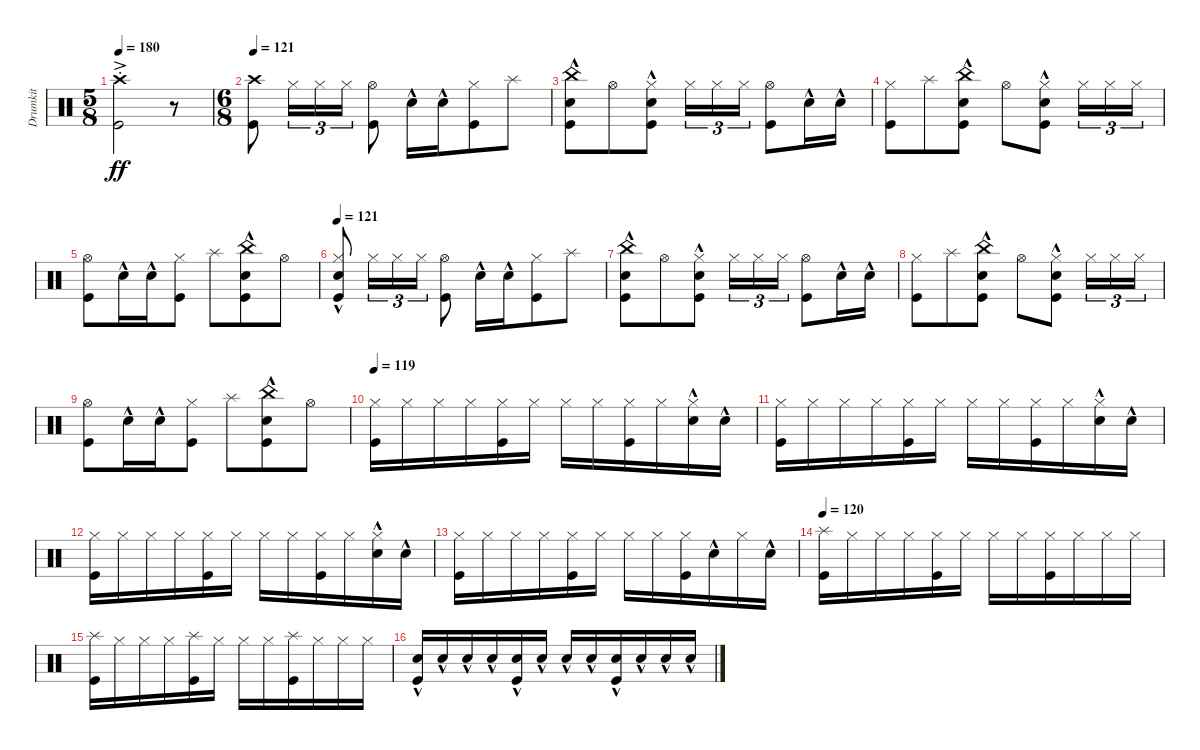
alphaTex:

\track ("Drumkit" "Drumkit") {instrument percussion}
\staff {score}
\articulation defaults
\ts (5 8)
\tempo 180
\clef neutral
\ks aminor
("Crash high (hit)"{ac st} "Kick (hit)").2{dy ff} r.8 |
\ts (6 8)
\tempo 122
\tempo 121
("Kick (hit)" "Crash high (hit)").8 "Hi-Hat (closed)".16{tu (3 2)} "Hi-Hat (closed)".16{tu (3 2)} "Hi-Hat (closed)".16{tu (3 2)} ("Hi-Hat (open)" "Kick (hit)").8 "Snare (hit) 2"{hac}.16 "Snare (hit) 2"{hac}.16 ("Hi-Hat (closed)" "Kick (hit)").8 "Splash (hit)".8 |
("China (hit)" "Snare (hit) 2"{hac} "Kick (hit)").8 "Hi-Hat (open)".8 ("Kick (hit)" "Hi-Hat (closed)" "Snare (hit) 2"{hac}).8 "Hi-Hat (closed)".16{tu (3 2)} "Hi-Hat (closed)".16{tu (3 2)} "Hi-Hat (closed)".16{tu (3 2)} ("Kick (hit)" "Hi-Hat (open)").8 "Snare (hit) 2"{hac}.16 "Snare (hit) 2"{hac}.16 |
("Hi-Hat (closed)" "Kick (hit)").8 "Splash (hit)".8 ("China (hit)" "Snare (hit) 2"{hac} "Kick (hit)").8 "Hi-Hat (open)".8 ("Kick (hit)" "Hi-Hat (closed)" "Snare (hit) 2"{hac}).8 "Hi-Hat (closed)".16{tu (3 2)} "Hi-Hat (closed)".16{tu (3 2)} "Hi-Hat (closed)".16{tu (3 2)} |
("Kick (hit)" "Hi-Hat (open)").8 "Snare (hit) 2"{hac}.16 "Snare (hit) 2"{hac}.16 ("Hi-Hat (closed)" "Kick (hit)").8 "Splash (hit)".8 ("China (hit)" "Snare (hit) 2"{hac} "Kick (hit)").8 "Hi-Hat (open)".8 |
\tempo 121
("Kick (hit)" "Hi-Hat (closed)" "Snare (hit) 2"{hac}).8 "Hi-Hat (closed)".16{tu (3 2)} "Hi-Hat (closed)".16{tu (3 2)} "Hi-Hat (closed)".16{tu (3 2)} ("Kick (hit)" "Hi-Hat (open)").8 "Snare (hit) 2"{hac}.16 "Snare (hit) 2"{hac}.16 ("Hi-Hat (closed)" "Kick (hit)").8 "Splash (hit)".8 |
("China (hit)" "Snare (hit) 2"{hac} "Kick (hit)").8 "Hi-Hat (open)".8 ("Kick (hit)" "Hi-Hat (closed)" "Snare (hit) 2"{hac}).8 "Hi-Hat (closed)".16{tu (3 2)} "Hi-Hat (closed)".16{tu (3 2)} "Hi-Hat (closed)".16{tu (3 2)} ("Kick (hit)" "Hi-Hat (open)").8 "Snare (hit) 2"{hac}.16 "Snare (hit) 2"{hac}.16 |
("Hi-Hat (closed)" "Kick (hit)").8 "Splash (hit)".8 ("China (hit)" "Snare (hit) 2"{hac} "Kick (hit)").8 "Hi-Hat (open)".8 ("Kick (hit)" "Hi-Hat (closed)" "Snare (hit) 2"{hac}).8 "Hi-Hat (closed)".16{tu (3 2)} "Hi-Hat (closed)".16{tu (3 2)} "Hi-Hat (closed)".16{tu (3 2)} |
("Kick (hit)" "Hi-Hat (open)").8 "Snare (hit) 2"{hac}.16 "Snare (hit) 2"{hac}.16 ("Hi-Hat (closed)" "Kick (hit)").8 "Splash (hit)".8 ("China (hit)" "Snare (hit) 2"{hac} "Kick (hit)").8 "Hi-Hat (open)".8 |
\tempo 119
("Kick (hit)" "Hi-Hat (closed)").16 "Hi-Hat (closed)".16 "Hi-Hat (closed)".16 "Hi-Hat (closed)".16 ("Hi-Hat (closed)" "Kick (hit)").16 "Hi-Hat (closed)".16 "Hi-Hat (closed)".16 "Hi-Hat (closed)".16 ("Hi-Hat (closed)" "Kick (hit)").16 "Hi-Hat (closed)".16 ("Hi-Hat (closed)" "Snare (hit) 2"{hac}).16 "Snare (hit) 2"{hac}.16 |
("Kick (hit)" "Hi-Hat (closed)").16 "Hi-Hat (closed)".16 "Hi-Hat (closed)".16 "Hi-Hat (closed)".16 ("Hi-Hat (closed)" "Kick (hit)").16 "Hi-Hat (closed)".16 "Hi-Hat (closed)".16 "Hi-Hat (closed)".16 ("Hi-Hat (closed)" "Kick (hit)").16 "Hi-Hat (closed)".16 ("Hi-Hat (closed)" "Snare (hit) 2"{hac}).16 "Snare (hit) 2"{hac}.16 |
("Kick (hit)" "Hi-Hat (closed)").16 "Hi-Hat (closed)".16 "Hi-Hat (closed)".16 "Hi-Hat (closed)".16 ("Hi-Hat (closed)" "Kick (hit)").16 "Hi-Hat (closed)".16 "Hi-Hat (closed)".16 "Hi-Hat (closed)".16 ("Hi-Hat (closed)" "Kick (hit)").16 "Hi-Hat (closed)".16 ("Hi-Hat (closed)" "Snare (hit) 2"{hac}).16 "Snare (hit) 2"{hac}.16 |
("Kick (hit)" "Hi-Hat (closed)").16 "Hi-Hat (closed)".16 "Hi-Hat (closed)".16 "Hi-Hat (closed)".16 ("Hi-Hat (closed)" "Kick (hit)").16 "Hi-Hat (closed)".16 "Hi-Hat (closed)".16 "Hi-Hat (closed)".16 ("Kick (hit)" "Hi-Hat (closed)").16 "Snare (hit) 2"{hac}.16 "Hi-Hat (closed)".16 "Snare (hit) 2"{hac}.16 |
\tempo 120
("Kick (hit)" "Splash (hit)").16 "Hi-Hat (closed)".16 "Hi-Hat (closed)".16 "Hi-Hat (closed)".16 ("Hi-Hat (closed)" "Kick (hit)").16 "Hi-Hat (closed)".16 "Hi-Hat (closed)".16 "Hi-Hat (closed)".16 ("Hi-Hat (closed)" "Kick (hit)").16 "Hi-Hat (closed)".16 "Hi-Hat (closed)".16 "Hi-Hat (closed)".16 |
("Kick (hit)" "Splash (hit)").16 "Hi-Hat (closed)".16 "Hi-Hat (closed)".16 "Hi-Hat (closed)".16 ("Kick (hit)" "Splash (hit)").16 "Hi-Hat (closed)".16 "Hi-Hat (closed)".16 "Hi-Hat (closed)".16 ("Kick (hit)" "Splash (hit)").16 "Hi-Hat (closed)".16 "Hi-Hat (closed)".16 "Hi-Hat (closed)".16 |
("Snare (hit) 2"{hac} "Kick (hit)").16 "Snare (hit) 2"{hac}.16 "Snare (hit) 2"{hac}.16 "Snare (hit) 2"{hac}.16 ("Snare (hit) 2"{hac} "Kick (hit)").16 "Snare (hit) 2"{hac}.16 "Snare (hit) 2"{hac}.16 "Snare (hit) 2"{hac}.16 ("Snare (hit) 2"{hac} "Kick (hit)").16 "Snare (hit) 2"{hac}.16 "Snare (hit) 2"{hac}.16 "Snare (hit) 2"{hac}.16
